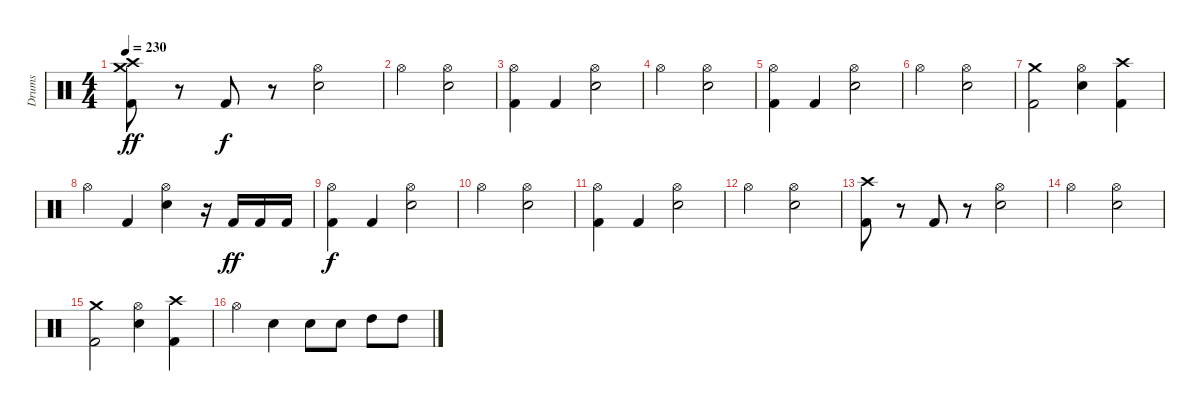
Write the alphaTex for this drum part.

\track ("Drums" "Drums") {instrument percussion}
\staff {score}
\articulation defaults
\ts (4 4)
\tempo 230
\clef neutral
\ks c
("Crash medium (hit)" "Crash high (hit)" "Kick (hit) 2").8{dy ff} r.8 "Kick (hit) 2".8{dy f} r.8 ("Hi-Hat (open)" "Electric Snare (hit)").2 |
"Hi-Hat (open)".2 ("Hi-Hat (open)" "Electric Snare (hit)").2 |
("Hi-Hat (open)" "Kick (hit) 2").4 "Kick (hit) 2".4 ("Hi-Hat (open)" "Electric Snare (hit)").2 |
"Hi-Hat (open)".2 ("Hi-Hat (open)" "Electric Snare (hit)").2 |
("Hi-Hat (open)" "Kick (hit) 2").4 "Kick (hit) 2".4 ("Hi-Hat (open)" "Electric Snare (hit)").2 |
"Hi-Hat (open)".2 ("Hi-Hat (open)" "Electric Snare (hit)").2 |
("Crash medium (hit)" "Kick (hit) 2").2 ("Hi-Hat (open)" "Electric Snare (hit)").4 ("Crash high (hit)" "Kick (hit) 2").4 |
"Hi-Hat (open)".4 "Kick (hit) 2".4 ("Hi-Hat (open)" "Electric Snare (hit)").4 r.16 "Kick (hit) 2".16{dy ff} "Kick (hit) 2".16 "Kick (hit) 2".16 |
("Hi-Hat (open)" "Kick (hit) 2").4{dy f} "Kick (hit) 2".4 ("Hi-Hat (open)" "Electric Snare (hit)").2 |
"Hi-Hat (open)".2 ("Hi-Hat (open)" "Electric Snare (hit)").2 |
("Hi-Hat (open)" "Kick (hit) 2").4 "Kick (hit) 2".4 ("Hi-Hat (open)" "Electric Snare (hit)").2 |
"Hi-Hat (open)".2 ("Hi-Hat (open)" "Electric Snare (hit)").2 |
("Crash high (hit)" "Kick (hit) 2").8 r.8 "Kick (hit) 2".8 r.8 ("Hi-Hat (open)" "Electric Snare (hit)").2 |
"Hi-Hat (open)".2 ("Hi-Hat (open)" "Electric Snare (hit)").2 |
("Crash medium (hit)" "Kick (hit) 2").2 ("Hi-Hat (open)" "Electric Snare (hit)").4 ("Crash high (hit)" "Kick (hit) 2").4 |
"Hi-Hat (open)".4 "Electric Snare (hit)".4 "Electric Snare (hit)".8 "Electric Snare (hit)".8 "High Tom (hit)".8 "High Tom (hit)".8
